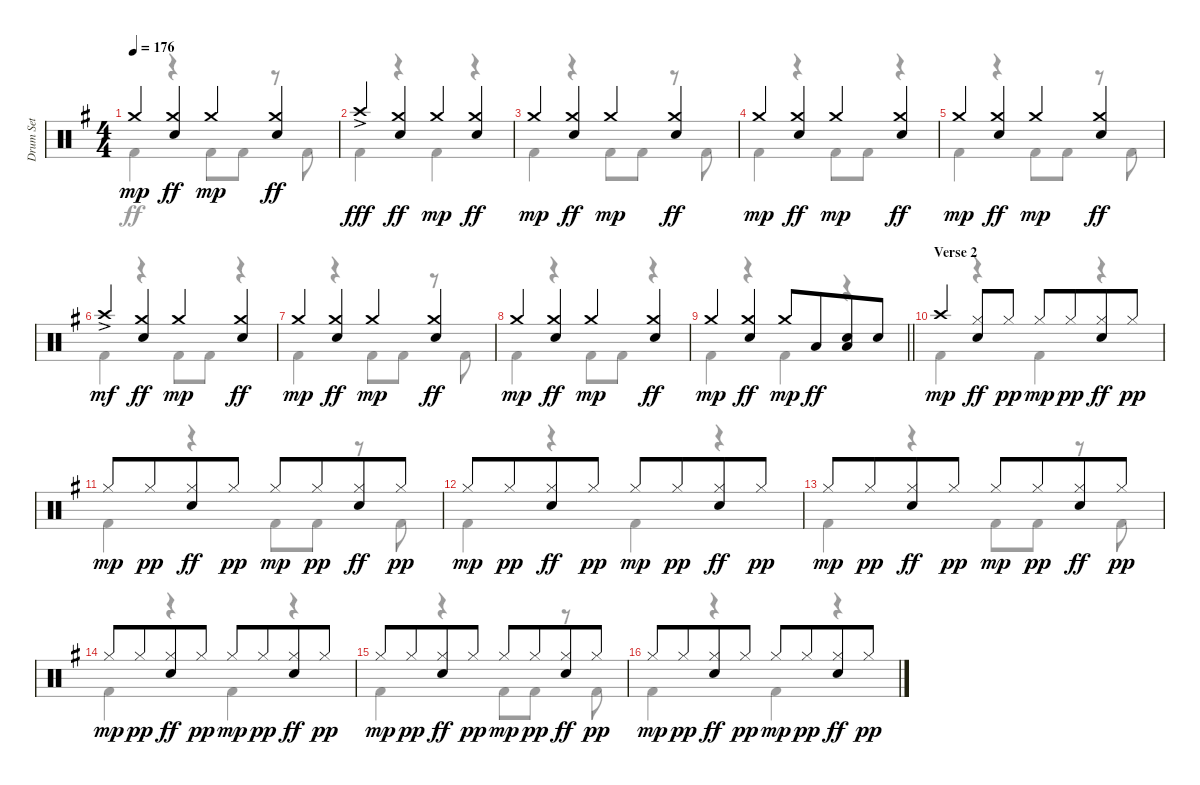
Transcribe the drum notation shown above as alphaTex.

\track ("Drum Set" "Drum Set") {instrument percussion}
\staff {score}
\articulation defaults
\voice
\ts (4 4)
\tempo 176
\clef neutral
\ks eminor "Crash medium (hit)".4{dy mp}
("Crash medium (hit)" "Electric Snare (hit)").4{dy ff} "Crash medium (hit)".4{dy mp} ("Crash medium (hit)" "Electric Snare (hit)").4{dy ff} |
"Crash high (hit)"{ac}.4{dy fff} ("Crash medium (hit)" "Electric Snare (hit)").4{dy ff} "Crash medium (hit)".4{dy mp} ("Crash medium (hit)" "Electric Snare (hit)").4{dy ff} |
"Crash medium (hit)".4{dy mp} ("Crash medium (hit)" "Electric Snare (hit)").4{dy ff} "Crash medium (hit)".4{dy mp} ("Crash medium (hit)" "Electric Snare (hit)").4{dy ff} |
"Crash medium (hit)".4{dy mp} ("Crash medium (hit)" "Electric Snare (hit)").4{dy ff} "Crash medium (hit)".4{dy mp} ("Crash medium (hit)" "Electric Snare (hit)").4{dy ff} |
"Crash medium (hit)".4{dy mp} ("Crash medium (hit)" "Electric Snare (hit)").4{dy ff} "Crash medium (hit)".4{dy mp} ("Crash medium (hit)" "Electric Snare (hit)").4{dy ff} |
"Crash high (hit)"{ac}.4{dy mf} ("Crash medium (hit)" "Electric Snare (hit)").4{dy ff} "Crash medium (hit)".4{dy mp} ("Crash medium (hit)" "Electric Snare (hit)").4{dy ff} |
"Crash medium (hit)".4{dy mp} ("Crash medium (hit)" "Electric Snare (hit)").4{dy ff} "Crash medium (hit)".4{dy mp} ("Crash medium (hit)" "Electric Snare (hit)").4{dy ff} |
"Crash medium (hit)".4{dy mp} ("Crash medium (hit)" "Electric Snare (hit)").4{dy ff} "Crash medium (hit)".4{dy mp} ("Crash medium (hit)" "Electric Snare (hit)").4{dy ff} |
\barLineRight lightlight "Crash medium (hit)".4{dy mp}
("Crash medium (hit)" "Electric Snare (hit)").4{dy ff} "Crash medium (hit)".8{dy mp} "Low Tom (hit)".8{dy ff beam merge} ("Electric Snare (hit)" "Low Tom (hit)").8 "Electric Snare (hit)".8 |
\section ("" "Verse 2")
"Crash high (hit)".4{dy mp} ("Hi-Hat (closed)" "Electric Snare (hit)").8{dy ff} "Hi-Hat (closed)".8{dy pp} "Hi-Hat (closed)".8{dy mp} "Hi-Hat (closed)".8{dy pp beam merge} ("Hi-Hat (closed)" "Electric Snare (hit)").8{dy ff} "Hi-Hat (closed)".8{dy pp} |
"Hi-Hat (closed)".8{dy mp} "Hi-Hat (closed)".8{dy pp beam merge} ("Hi-Hat (closed)" "Electric Snare (hit)").8{dy ff} "Hi-Hat (closed)".8{dy pp} "Hi-Hat (closed)".8{dy mp} "Hi-Hat (closed)".8{dy pp beam merge} ("Hi-Hat (closed)" "Electric Snare (hit)").8{dy ff} "Hi-Hat (closed)".8{dy pp} |
"Hi-Hat (closed)".8{dy mp} "Hi-Hat (closed)".8{dy pp beam merge} ("Hi-Hat (closed)" "Electric Snare (hit)").8{dy ff} "Hi-Hat (closed)".8{dy pp} "Hi-Hat (closed)".8{dy mp} "Hi-Hat (closed)".8{dy pp beam merge} ("Hi-Hat (closed)" "Electric Snare (hit)").8{dy ff} "Hi-Hat (closed)".8{dy pp} |
"Hi-Hat (closed)".8{dy mp} "Hi-Hat (closed)".8{dy pp beam merge} ("Hi-Hat (closed)" "Electric Snare (hit)").8{dy ff} "Hi-Hat (closed)".8{dy pp} "Hi-Hat (closed)".8{dy mp} "Hi-Hat (closed)".8{dy pp beam merge} ("Hi-Hat (closed)" "Electric Snare (hit)").8{dy ff} "Hi-Hat (closed)".8{dy pp} |
"Hi-Hat (closed)".8{dy mp} "Hi-Hat (closed)".8{dy pp beam merge} ("Hi-Hat (closed)" "Electric Snare (hit)").8{dy ff} "Hi-Hat (closed)".8{dy pp} "Hi-Hat (closed)".8{dy mp} "Hi-Hat (closed)".8{dy pp beam merge} ("Hi-Hat (closed)" "Electric Snare (hit)").8{dy ff} "Hi-Hat (closed)".8{dy pp} |
"Hi-Hat (closed)".8{dy mp} "Hi-Hat (closed)".8{dy pp beam merge} ("Hi-Hat (closed)" "Electric Snare (hit)").8{dy ff} "Hi-Hat (closed)".8{dy pp} "Hi-Hat (closed)".8{dy mp} "Hi-Hat (closed)".8{dy pp beam merge} ("Hi-Hat (closed)" "Electric Snare (hit)").8{dy ff} "Hi-Hat (closed)".8{dy pp} |
"Hi-Hat (closed)".8{dy mp} "Hi-Hat (closed)".8{dy pp beam merge} ("Hi-Hat (closed)" "Electric Snare (hit)").8{dy ff} "Hi-Hat (closed)".8{dy pp} "Hi-Hat (closed)".8{dy mp} "Hi-Hat (closed)".8{dy pp beam merge} ("Hi-Hat (closed)" "Electric Snare (hit)").8{dy ff} "Hi-Hat (closed)".8{dy pp}
\voice
\clef neutral
\ottava regular
\simile none
\ks eminor "Kick (hit) 2".4{dy ff}
r.4 "Kick (hit) 2".8 "Kick (hit) 2".8 r.8 "Kick (hit) 2".8 |
"Kick (hit) 2".4 r.4 "Kick (hit) 2".4 r.4 |
"Kick (hit) 2".4 r.4 "Kick (hit) 2".8 "Kick (hit) 2".8 r.8 "Kick (hit) 2".8 |
"Kick (hit) 2".4 r.4 "Kick (hit) 2".8 "Kick (hit) 2".8 r.4 |
"Kick (hit) 2".4 r.4 "Kick (hit) 2".8 "Kick (hit) 2".8 r.8 "Kick (hit) 2".8 |
"Kick (hit) 2".4 r.4 "Kick (hit) 2".8 "Kick (hit) 2".8 r.4 |
"Kick (hit) 2".4 r.4 "Kick (hit) 2".8 "Kick (hit) 2".8 r.8 "Kick (hit) 2".8 |
"Kick (hit) 2".4 r.4 "Kick (hit) 2".8 "Kick (hit) 2".8 r.4 |
\barLineRight lightlight "Kick (hit) 2".4
r.4 "Kick (hit) 2".4 r.4 |
"Kick (hit) 2".4 r.4 "Kick (hit) 2".4 r.4 |
"Kick (hit) 2".4 r.4 "Kick (hit) 2".8 "Kick (hit) 2".8 r.8 "Kick (hit) 2".8 |
"Kick (hit) 2".4 r.4 "Kick (hit) 2".4 r.4 |
"Kick (hit) 2".4 r.4 "Kick (hit) 2".8 "Kick (hit) 2".8 r.8 "Kick (hit) 2".8 |
"Kick (hit) 2".4 r.4 "Kick (hit) 2".4 r.4 |
"Kick (hit) 2".4 r.4 "Kick (hit) 2".8 "Kick (hit) 2".8 r.8 "Kick (hit) 2".8 |
"Kick (hit) 2".4 r.4 "Kick (hit) 2".4 r.4
